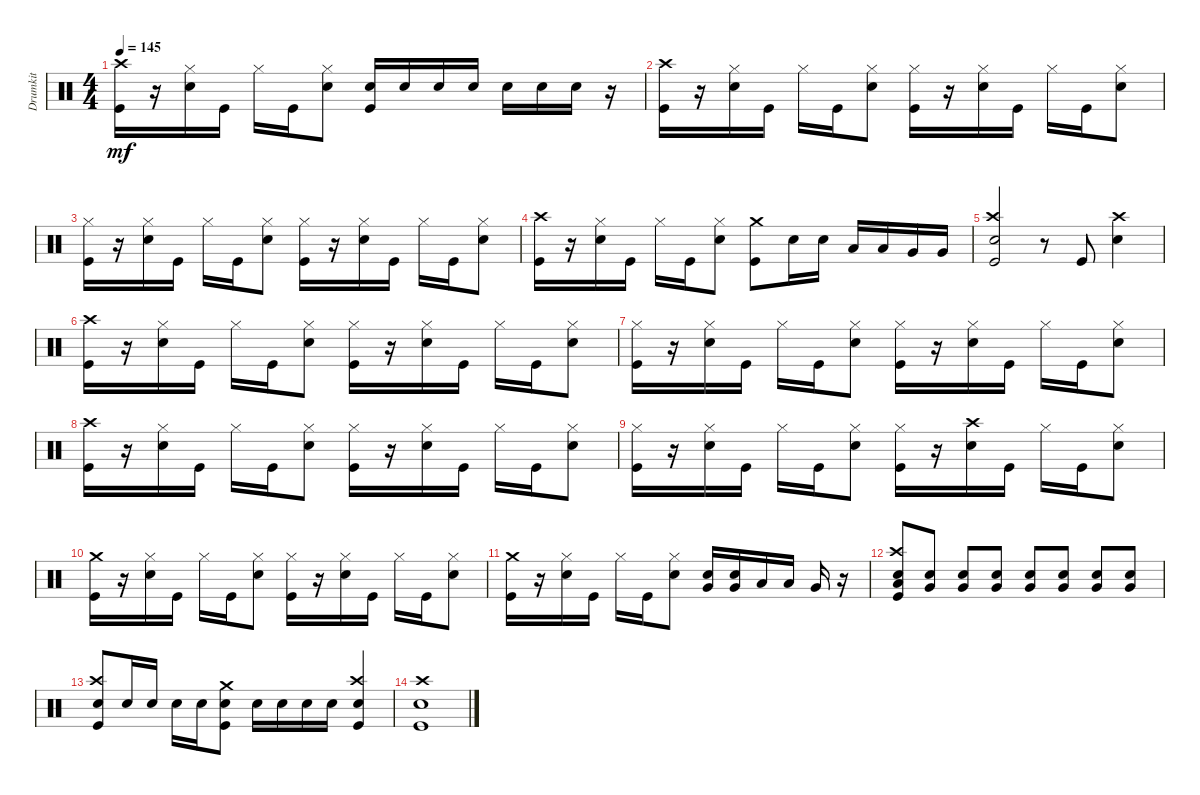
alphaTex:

\track ("Drumkit" "Drumkit") {instrument percussion}
\staff {score}
\articulation defaults
\ts (4 4)
\tempo 145
\clef neutral
\ks c
("Kick (hit)" "Crash high (hit)").16{dy mf} r.16 ("Snare (hit) 2" "Hi-Hat (closed)").16 "Kick (hit)".16 "Hi-Hat (closed)".16 "Kick (hit)".16 ("Snare (hit) 2" "Hi-Hat (closed)").8 ("Kick (hit)" "Snare (hit) 2").16 "Snare (hit) 2".16 "Snare (hit) 2".16 "Snare (hit) 2".16 "Snare (hit) 2".16 "Snare (hit) 2".16 "Snare (hit) 2".16 r.16 |
("Crash high (hit)" "Kick (hit)").16 r.16 ("Snare (hit) 2" "Hi-Hat (closed)").16 "Kick (hit)".16 "Hi-Hat (closed)".16 "Kick (hit)".16 ("Snare (hit) 2" "Hi-Hat (closed)").8 ("Kick (hit)" "Hi-Hat (closed)").16 r.16 ("Snare (hit) 2" "Hi-Hat (closed)").16 "Kick (hit)".16 "Hi-Hat (closed)".16 "Kick (hit)".16 ("Snare (hit) 2" "Hi-Hat (closed)").8 |
("Kick (hit)" "Hi-Hat (closed)").16 r.16 ("Snare (hit) 2" "Hi-Hat (closed)").16 "Kick (hit)".16 "Hi-Hat (closed)".16 "Kick (hit)".16 ("Snare (hit) 2" "Hi-Hat (closed)").8 ("Kick (hit)" "Hi-Hat (closed)").16 r.16 ("Snare (hit) 2" "Hi-Hat (closed)").16 "Kick (hit)".16 "Hi-Hat (closed)".16 "Kick (hit)".16 ("Snare (hit) 2" "Hi-Hat (closed)").8 |
("Crash high (hit)" "Kick (hit)").16 r.16 ("Snare (hit) 2" "Hi-Hat (closed)").16 "Kick (hit)".16 "Hi-Hat (closed)".16 "Kick (hit)".16 ("Snare (hit) 2" "Hi-Hat (closed)").8 ("Kick (hit)" "Crash medium (hit)").8 "Snare (hit) 2".16 "Snare (hit) 2".16 "Low Tom (hit)".16 "Low Tom (hit)".16 "Very Low Tom (hit)".16 "Very Low Tom (hit)".16 |
("Kick (hit)" "Crash high (hit)" "Snare (hit) 2").2 r.8 "Kick (hit)".8 ("Snare (hit) 2" "Crash high (hit)").4 |
("Crash high (hit)" "Kick (hit)").16 r.16 ("Snare (hit) 2" "Hi-Hat (closed)").16 "Kick (hit)".16 "Hi-Hat (closed)".16 "Kick (hit)".16 ("Snare (hit) 2" "Hi-Hat (closed)").8 ("Kick (hit)" "Hi-Hat (closed)").16 r.16 ("Snare (hit) 2" "Hi-Hat (closed)").16 "Kick (hit)".16 "Hi-Hat (closed)".16 "Kick (hit)".16 ("Snare (hit) 2" "Hi-Hat (closed)").8 |
("Kick (hit)" "Hi-Hat (closed)").16 r.16 ("Snare (hit) 2" "Hi-Hat (closed)").16 "Kick (hit)".16 "Hi-Hat (closed)".16 "Kick (hit)".16 ("Snare (hit) 2" "Hi-Hat (closed)").8 ("Kick (hit)" "Hi-Hat (closed)").16 r.16 ("Snare (hit) 2" "Hi-Hat (closed)").16 "Kick (hit)".16 "Hi-Hat (closed)".16 "Kick (hit)".16 ("Snare (hit) 2" "Hi-Hat (closed)").8 |
("Crash high (hit)" "Kick (hit)").16 r.16 ("Snare (hit) 2" "Hi-Hat (closed)").16 "Kick (hit)".16 "Hi-Hat (closed)".16 "Kick (hit)".16 ("Snare (hit) 2" "Hi-Hat (closed)").8 ("Kick (hit)" "Hi-Hat (closed)").16 r.16 ("Snare (hit) 2" "Hi-Hat (closed)").16 "Kick (hit)".16 "Hi-Hat (closed)".16 "Kick (hit)".16 ("Snare (hit) 2" "Hi-Hat (closed)").8 |
("Kick (hit)" "Hi-Hat (closed)").16 r.16 ("Snare (hit) 2" "Hi-Hat (closed)").16 "Kick (hit)".16 "Hi-Hat (closed)".16 "Kick (hit)".16 ("Snare (hit) 2" "Hi-Hat (closed)").8 ("Kick (hit)" "Hi-Hat (closed)").16 r.16 ("Snare (hit) 2" "Crash high (hit)").16 "Kick (hit)".16 "Hi-Hat (closed)".16 "Kick (hit)".16 ("Snare (hit) 2" "Hi-Hat (closed)").8 |
("Kick (hit)" "Crash medium (hit)").16 r.16 ("Snare (hit) 2" "Hi-Hat (closed)").16 "Kick (hit)".16 "Hi-Hat (closed)".16 "Kick (hit)".16 ("Snare (hit) 2" "Hi-Hat (closed)").8 ("Kick (hit)" "Hi-Hat (closed)").16 r.16 ("Snare (hit) 2" "Hi-Hat (closed)").16 "Kick (hit)".16 "Hi-Hat (closed)".16 "Kick (hit)".16 ("Snare (hit) 2" "Hi-Hat (closed)").8 |
("Kick (hit)" "Crash medium (hit)").16 r.16 ("Snare (hit) 2" "Hi-Hat (closed)").16 "Kick (hit)".16 "Hi-Hat (closed)".16 "Kick (hit)".16 ("Snare (hit) 2" "Hi-Hat (closed)").8 ("Very Low Tom (hit)" "Snare (hit) 2").16 ("Very Low Tom (hit)" "Snare (hit) 2").16 "Low Tom (hit)".16 "Low Floor Tom (hit)".16 "Very Low Tom (hit)".16 r.16 |
("Kick (hit)" "Snare (hit) 2" "Crash high (hit)" "Low Floor Tom (hit)").8 ("Snare (hit) 2" "Very Low Tom (hit)").8 ("Snare (hit) 2" "Very Low Tom (hit)").8 ("Snare (hit) 2" "Very Low Tom (hit)").8 ("Snare (hit) 2" "Very Low Tom (hit)").8 ("Snare (hit) 2" "Very Low Tom (hit)").8 ("Snare (hit) 2" "Very Low Tom (hit)").8 ("Snare (hit) 2" "Very Low Tom (hit)").8 |
("Crash high (hit)" "Snare (hit) 2" "Kick (hit)").8 "Snare (hit) 2".16 "Snare (hit) 2".16 "Snare (hit) 2".16 "Snare (hit) 2".16 ("Crash medium (hit)" "Snare (hit) 2" "Kick (hit)").8 "Snare (hit) 2".16 "Snare (hit) 2".16 "Snare (hit) 2".16 "Snare (hit) 2".16 ("Crash high (hit)" "Snare (hit) 2" "Kick (hit)").4 |
("Kick (hit)" "Snare (hit) 2" "Crash high (hit)").1
